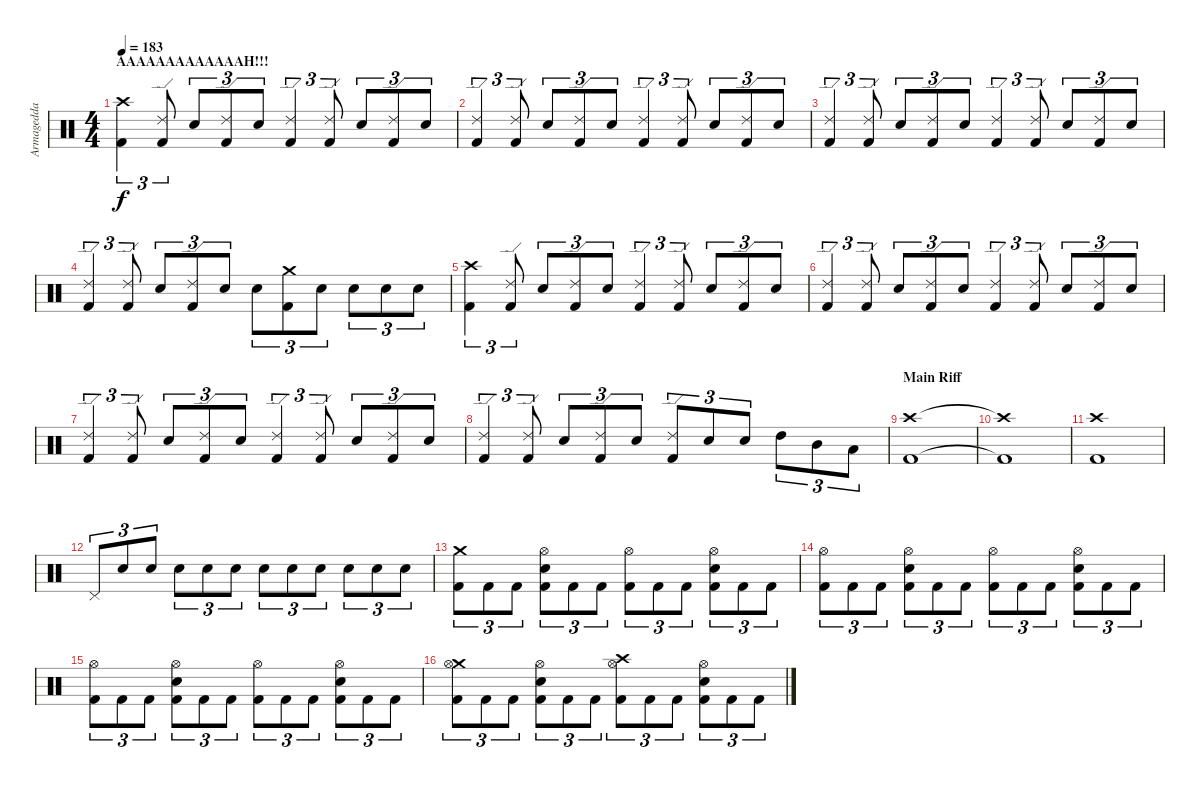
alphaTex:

\track ("Armagedda" "Armagedda") {instrument percussion}
\staff {score}
\articulation defaults
\ts (4 4)
\section ("" "AAAAAAAAAAAAAH!!!")
\tempo 183
\clef neutral
\ks c
("Crash high (hit)" "Kick (hit) 2").4{tu (3 2) dy f} ("Ride (edge) 2" "Kick (hit) 2").8{tu (3 2)} "Electric Snare (hit)".8{tu (3 2)} ("Ride (edge) 2" "Kick (hit) 2").8{tu (3 2)} "Electric Snare (hit)".8{tu (3 2)} ("Ride (edge) 2" "Kick (hit) 2").4{tu (3 2)} ("Ride (edge) 2" "Kick (hit) 2").8{tu (3 2)} "Electric Snare (hit)".8{tu (3 2)} ("Ride (edge) 2" "Kick (hit) 2").8{tu (3 2)} "Electric Snare (hit)".8{tu (3 2)} |
("Ride (edge) 2" "Kick (hit) 2").4{tu (3 2)} ("Ride (edge) 2" "Kick (hit) 2").8{tu (3 2)} "Electric Snare (hit)".8{tu (3 2)} ("Ride (edge) 2" "Kick (hit) 2").8{tu (3 2)} "Electric Snare (hit)".8{tu (3 2)} ("Ride (edge) 2" "Kick (hit) 2").4{tu (3 2)} ("Ride (edge) 2" "Kick (hit) 2").8{tu (3 2)} "Electric Snare (hit)".8{tu (3 2)} ("Ride (edge) 2" "Kick (hit) 2").8{tu (3 2)} "Electric Snare (hit)".8{tu (3 2)} |
("Ride (edge) 2" "Kick (hit) 2").4{tu (3 2)} ("Ride (edge) 2" "Kick (hit) 2").8{tu (3 2)} "Electric Snare (hit)".8{tu (3 2)} ("Ride (edge) 2" "Kick (hit) 2").8{tu (3 2)} "Electric Snare (hit)".8{tu (3 2)} ("Ride (edge) 2" "Kick (hit) 2").4{tu (3 2)} ("Ride (edge) 2" "Kick (hit) 2").8{tu (3 2)} "Electric Snare (hit)".8{tu (3 2)} ("Ride (edge) 2" "Kick (hit) 2").8{tu (3 2)} "Electric Snare (hit)".8{tu (3 2)} |
("Ride (edge) 2" "Kick (hit) 2").4{tu (3 2)} ("Ride (edge) 2" "Kick (hit) 2").8{tu (3 2)} "Electric Snare (hit)".8{tu (3 2)} ("Ride (edge) 2" "Kick (hit) 2").8{tu (3 2)} "Electric Snare (hit)".8{tu (3 2)} "Electric Snare (hit)".8{tu (3 2)} ("Crash medium (hit)" "Kick (hit) 2").8{tu (3 2)} "Electric Snare (hit)".8{tu (3 2)} "Electric Snare (hit)".8{tu (3 2)} "Electric Snare (hit)".8{tu (3 2)} "Electric Snare (hit)".8{tu (3 2)} |
("Crash high (hit)" "Kick (hit) 2").4{tu (3 2)} ("Ride (edge) 2" "Kick (hit) 2").8{tu (3 2)} "Electric Snare (hit)".8{tu (3 2)} ("Ride (edge) 2" "Kick (hit) 2").8{tu (3 2)} "Electric Snare (hit)".8{tu (3 2)} ("Ride (edge) 2" "Kick (hit) 2").4{tu (3 2)} ("Ride (edge) 2" "Kick (hit) 2").8{tu (3 2)} "Electric Snare (hit)".8{tu (3 2)} ("Ride (edge) 2" "Kick (hit) 2").8{tu (3 2)} "Electric Snare (hit)".8{tu (3 2)} |
("Ride (edge) 2" "Kick (hit) 2").4{tu (3 2)} ("Ride (edge) 2" "Kick (hit) 2").8{tu (3 2)} "Electric Snare (hit)".8{tu (3 2)} ("Ride (edge) 2" "Kick (hit) 2").8{tu (3 2)} "Electric Snare (hit)".8{tu (3 2)} ("Ride (edge) 2" "Kick (hit) 2").4{tu (3 2)} ("Ride (edge) 2" "Kick (hit) 2").8{tu (3 2)} "Electric Snare (hit)".8{tu (3 2)} ("Ride (edge) 2" "Kick (hit) 2").8{tu (3 2)} "Electric Snare (hit)".8{tu (3 2)} |
("Ride (edge) 2" "Kick (hit) 2").4{tu (3 2)} ("Ride (edge) 2" "Kick (hit) 2").8{tu (3 2)} "Electric Snare (hit)".8{tu (3 2)} ("Ride (edge) 2" "Kick (hit) 2").8{tu (3 2)} "Electric Snare (hit)".8{tu (3 2)} ("Ride (edge) 2" "Kick (hit) 2").4{tu (3 2)} ("Ride (edge) 2" "Kick (hit) 2").8{tu (3 2)} "Electric Snare (hit)".8{tu (3 2)} ("Ride (edge) 2" "Kick (hit) 2").8{tu (3 2)} "Electric Snare (hit)".8{tu (3 2)} |
("Ride (edge) 2" "Kick (hit) 2").4{tu (3 2)} ("Ride (edge) 2" "Kick (hit) 2").8{tu (3 2)} "Electric Snare (hit)".8{tu (3 2)} ("Ride (edge) 2" "Kick (hit) 2").8{tu (3 2)} "Electric Snare (hit)".8{tu (3 2)} ("Ride (edge) 2" "Kick (hit) 2").8{tu (3 2)} "Electric Snare (hit)".8{tu (3 2)} "Electric Snare (hit)".8{tu (3 2)} "High Tom (hit)".8{tu (3 2)} "Mid Tom (hit)".8{tu (3 2)} "Low Tom (hit)".8{tu (3 2)} |
\section ("" "Main Riff")
("Crash high (hit)" "Kick (hit) 2").1 |
("Crash high (hit)"{t} "Kick (hit) 2"{t}).1 |
("Crash high (hit)" "Kick (hit) 2").1 |
"Pedal Hi-Hat (hit)".8{tu (3 2)} "Electric Snare (hit)".8{tu (3 2)} "Electric Snare (hit)".8{tu (3 2)} "Electric Snare (hit)".8{tu (3 2)} "Electric Snare (hit)".8{tu (3 2)} "Electric Snare (hit)".8{tu (3 2)} "Electric Snare (hit)".8{tu (3 2)} "Electric Snare (hit)".8{tu (3 2)} "Electric Snare (hit)".8{tu (3 2)} "Electric Snare (hit)".8{tu (3 2)} "Electric Snare (hit)".8{tu (3 2)} "Electric Snare (hit)".8{tu (3 2)} |
("Crash medium (hit)" "Kick (hit) 2").8{tu (3 2)} "Kick (hit) 2".8{tu (3 2)} "Kick (hit) 2".8{tu (3 2)} ("Hi-Hat (open)" "Electric Snare (hit)" "Kick (hit) 2").8{tu (3 2)} "Kick (hit) 2".8{tu (3 2)} "Kick (hit) 2".8{tu (3 2)} ("Hi-Hat (open)" "Kick (hit) 2").8{tu (3 2)} "Kick (hit) 2".8{tu (3 2)} "Kick (hit) 2".8{tu (3 2)} ("Hi-Hat (open)" "Electric Snare (hit)" "Kick (hit) 2").8{tu (3 2)} "Kick (hit) 2".8{tu (3 2)} "Kick (hit) 2".8{tu (3 2)} |
("Hi-Hat (open)" "Kick (hit) 2").8{tu (3 2)} "Kick (hit) 2".8{tu (3 2)} "Kick (hit) 2".8{tu (3 2)} ("Hi-Hat (open)" "Electric Snare (hit)" "Kick (hit) 2").8{tu (3 2)} "Kick (hit) 2".8{tu (3 2)} "Kick (hit) 2".8{tu (3 2)} ("Hi-Hat (open)" "Kick (hit) 2").8{tu (3 2)} "Kick (hit) 2".8{tu (3 2)} "Kick (hit) 2".8{tu (3 2)} ("Hi-Hat (open)" "Electric Snare (hit)" "Kick (hit) 2").8{tu (3 2)} "Kick (hit) 2".8{tu (3 2)} "Kick (hit) 2".8{tu (3 2)} |
("Hi-Hat (open)" "Kick (hit) 2").8{tu (3 2)} "Kick (hit) 2".8{tu (3 2)} "Kick (hit) 2".8{tu (3 2)} ("Hi-Hat (open)" "Electric Snare (hit)" "Kick (hit) 2").8{tu (3 2)} "Kick (hit) 2".8{tu (3 2)} "Kick (hit) 2".8{tu (3 2)} ("Hi-Hat (open)" "Kick (hit) 2").8{tu (3 2)} "Kick (hit) 2".8{tu (3 2)} "Kick (hit) 2".8{tu (3 2)} ("Hi-Hat (open)" "Electric Snare (hit)" "Kick (hit) 2").8{tu (3 2)} "Kick (hit) 2".8{tu (3 2)} "Kick (hit) 2".8{tu (3 2)} |
("Crash medium (hit)" "Hi-Hat (open)" "Kick (hit) 2").8{tu (3 2)} "Kick (hit) 2".8{tu (3 2)} "Kick (hit) 2".8{tu (3 2)} ("Hi-Hat (open)" "Electric Snare (hit)" "Kick (hit) 2").8{tu (3 2)} "Kick (hit) 2".8{tu (3 2)} "Kick (hit) 2".8{tu (3 2)} ("Crash high (hit)" "Hi-Hat (open)" "Kick (hit) 2").8{tu (3 2)} "Kick (hit) 2".8{tu (3 2)} "Kick (hit) 2".8{tu (3 2)} ("Hi-Hat (open)" "Electric Snare (hit)" "Kick (hit) 2").8{tu (3 2)} "Kick (hit) 2".8{tu (3 2)} "Kick (hit) 2".8{tu (3 2)}
